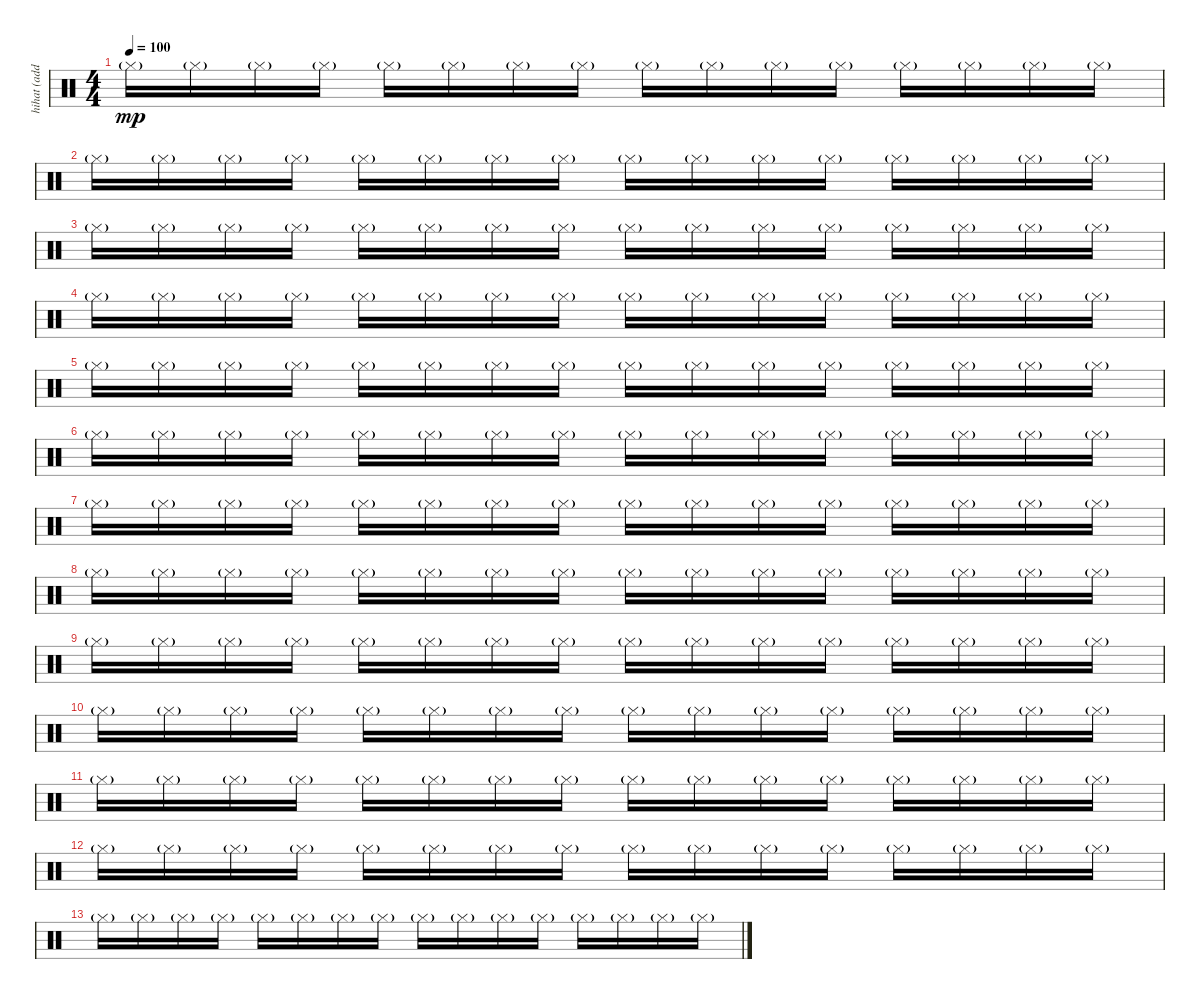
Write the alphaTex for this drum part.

\track ("hihat (additional)" "hihat (add") {instrument percussion}
\staff {score}
\articulation defaults
\ts (4 4)
\tempo 100
\clef neutral
\ks c "Hi-Hat (closed)"{g}.16{dy mp} "Hi-Hat (closed)"{g}.16 "Hi-Hat (closed)"{g}.16 "Hi-Hat (closed)"{g}.16 "Hi-Hat (closed)"{g}.16 "Hi-Hat (closed)"{g}.16 "Hi-Hat (closed)"{g}.16 "Hi-Hat (closed)"{g}.16 "Hi-Hat (closed)"{g}.16 "Hi-Hat (closed)"{g}.16 "Hi-Hat (closed)"{g}.16 "Hi-Hat (closed)"{g}.16 "Hi-Hat (closed)"{g}.16 "Hi-Hat (closed)"{g}.16 "Hi-Hat (closed)"{g}.16 "Hi-Hat (closed)"{g}.16
|
"Hi-Hat (closed)"{g}.16 "Hi-Hat (closed)"{g}.16 "Hi-Hat (closed)"{g}.16 "Hi-Hat (closed)"{g}.16 "Hi-Hat (closed)"{g}.16 "Hi-Hat (closed)"{g}.16 "Hi-Hat (closed)"{g}.16 "Hi-Hat (closed)"{g}.16 "Hi-Hat (closed)"{g}.16 "Hi-Hat (closed)"{g}.16 "Hi-Hat (closed)"{g}.16 "Hi-Hat (closed)"{g}.16 "Hi-Hat (closed)"{g}.16 "Hi-Hat (closed)"{g}.16 "Hi-Hat (closed)"{g}.16 "Hi-Hat (closed)"{g}.16 |
"Hi-Hat (closed)"{g}.16 "Hi-Hat (closed)"{g}.16 "Hi-Hat (closed)"{g}.16 "Hi-Hat (closed)"{g}.16 "Hi-Hat (closed)"{g}.16 "Hi-Hat (closed)"{g}.16 "Hi-Hat (closed)"{g}.16 "Hi-Hat (closed)"{g}.16 "Hi-Hat (closed)"{g}.16 "Hi-Hat (closed)"{g}.16 "Hi-Hat (closed)"{g}.16 "Hi-Hat (closed)"{g}.16 "Hi-Hat (closed)"{g}.16 "Hi-Hat (closed)"{g}.16 "Hi-Hat (closed)"{g}.16 "Hi-Hat (closed)"{g}.16 |
"Hi-Hat (closed)"{g}.16 "Hi-Hat (closed)"{g}.16 "Hi-Hat (closed)"{g}.16 "Hi-Hat (closed)"{g}.16 "Hi-Hat (closed)"{g}.16 "Hi-Hat (closed)"{g}.16 "Hi-Hat (closed)"{g}.16 "Hi-Hat (closed)"{g}.16 "Hi-Hat (closed)"{g}.16 "Hi-Hat (closed)"{g}.16 "Hi-Hat (closed)"{g}.16 "Hi-Hat (closed)"{g}.16 "Hi-Hat (closed)"{g}.16 "Hi-Hat (closed)"{g}.16 "Hi-Hat (closed)"{g}.16 "Hi-Hat (closed)"{g}.16 |
"Hi-Hat (closed)"{g}.16 "Hi-Hat (closed)"{g}.16 "Hi-Hat (closed)"{g}.16 "Hi-Hat (closed)"{g}.16 "Hi-Hat (closed)"{g}.16 "Hi-Hat (closed)"{g}.16 "Hi-Hat (closed)"{g}.16 "Hi-Hat (closed)"{g}.16 "Hi-Hat (closed)"{g}.16 "Hi-Hat (closed)"{g}.16 "Hi-Hat (closed)"{g}.16 "Hi-Hat (closed)"{g}.16 "Hi-Hat (closed)"{g}.16 "Hi-Hat (closed)"{g}.16 "Hi-Hat (closed)"{g}.16 "Hi-Hat (closed)"{g}.16 |
"Hi-Hat (closed)"{g}.16 "Hi-Hat (closed)"{g}.16 "Hi-Hat (closed)"{g}.16 "Hi-Hat (closed)"{g}.16 "Hi-Hat (closed)"{g}.16 "Hi-Hat (closed)"{g}.16 "Hi-Hat (closed)"{g}.16 "Hi-Hat (closed)"{g}.16 "Hi-Hat (closed)"{g}.16 "Hi-Hat (closed)"{g}.16 "Hi-Hat (closed)"{g}.16 "Hi-Hat (closed)"{g}.16 "Hi-Hat (closed)"{g}.16 "Hi-Hat (closed)"{g}.16 "Hi-Hat (closed)"{g}.16 "Hi-Hat (closed)"{g}.16 |
"Hi-Hat (closed)"{g}.16 "Hi-Hat (closed)"{g}.16 "Hi-Hat (closed)"{g}.16 "Hi-Hat (closed)"{g}.16 "Hi-Hat (closed)"{g}.16 "Hi-Hat (closed)"{g}.16 "Hi-Hat (closed)"{g}.16 "Hi-Hat (closed)"{g}.16 "Hi-Hat (closed)"{g}.16 "Hi-Hat (closed)"{g}.16 "Hi-Hat (closed)"{g}.16 "Hi-Hat (closed)"{g}.16 "Hi-Hat (closed)"{g}.16 "Hi-Hat (closed)"{g}.16 "Hi-Hat (closed)"{g}.16 "Hi-Hat (closed)"{g}.16 |
"Hi-Hat (closed)"{g}.16 "Hi-Hat (closed)"{g}.16 "Hi-Hat (closed)"{g}.16 "Hi-Hat (closed)"{g}.16 "Hi-Hat (closed)"{g}.16 "Hi-Hat (closed)"{g}.16 "Hi-Hat (closed)"{g}.16 "Hi-Hat (closed)"{g}.16 "Hi-Hat (closed)"{g}.16 "Hi-Hat (closed)"{g}.16 "Hi-Hat (closed)"{g}.16 "Hi-Hat (closed)"{g}.16 "Hi-Hat (closed)"{g}.16 "Hi-Hat (closed)"{g}.16 "Hi-Hat (closed)"{g}.16 "Hi-Hat (closed)"{g}.16 |
"Hi-Hat (closed)"{g}.16 "Hi-Hat (closed)"{g}.16 "Hi-Hat (closed)"{g}.16 "Hi-Hat (closed)"{g}.16 "Hi-Hat (closed)"{g}.16 "Hi-Hat (closed)"{g}.16 "Hi-Hat (closed)"{g}.16 "Hi-Hat (closed)"{g}.16 "Hi-Hat (closed)"{g}.16 "Hi-Hat (closed)"{g}.16 "Hi-Hat (closed)"{g}.16 "Hi-Hat (closed)"{g}.16 "Hi-Hat (closed)"{g}.16 "Hi-Hat (closed)"{g}.16 "Hi-Hat (closed)"{g}.16 "Hi-Hat (closed)"{g}.16 |
"Hi-Hat (closed)"{g}.16 "Hi-Hat (closed)"{g}.16 "Hi-Hat (closed)"{g}.16 "Hi-Hat (closed)"{g}.16 "Hi-Hat (closed)"{g}.16 "Hi-Hat (closed)"{g}.16 "Hi-Hat (closed)"{g}.16 "Hi-Hat (closed)"{g}.16 "Hi-Hat (closed)"{g}.16 "Hi-Hat (closed)"{g}.16 "Hi-Hat (closed)"{g}.16 "Hi-Hat (closed)"{g}.16 "Hi-Hat (closed)"{g}.16 "Hi-Hat (closed)"{g}.16 "Hi-Hat (closed)"{g}.16 "Hi-Hat (closed)"{g}.16 |
"Hi-Hat (closed)"{g}.16 "Hi-Hat (closed)"{g}.16 "Hi-Hat (closed)"{g}.16 "Hi-Hat (closed)"{g}.16 "Hi-Hat (closed)"{g}.16 "Hi-Hat (closed)"{g}.16 "Hi-Hat (closed)"{g}.16 "Hi-Hat (closed)"{g}.16 "Hi-Hat (closed)"{g}.16 "Hi-Hat (closed)"{g}.16 "Hi-Hat (closed)"{g}.16 "Hi-Hat (closed)"{g}.16 "Hi-Hat (closed)"{g}.16 "Hi-Hat (closed)"{g}.16 "Hi-Hat (closed)"{g}.16 "Hi-Hat (closed)"{g}.16 |
"Hi-Hat (closed)"{g}.16 "Hi-Hat (closed)"{g}.16 "Hi-Hat (closed)"{g}.16 "Hi-Hat (closed)"{g}.16 "Hi-Hat (closed)"{g}.16 "Hi-Hat (closed)"{g}.16 "Hi-Hat (closed)"{g}.16 "Hi-Hat (closed)"{g}.16 "Hi-Hat (closed)"{g}.16 "Hi-Hat (closed)"{g}.16 "Hi-Hat (closed)"{g}.16 "Hi-Hat (closed)"{g}.16 "Hi-Hat (closed)"{g}.16 "Hi-Hat (closed)"{g}.16 "Hi-Hat (closed)"{g}.16 "Hi-Hat (closed)"{g}.16 |
"Hi-Hat (closed)"{g}.16 "Hi-Hat (closed)"{g}.16 "Hi-Hat (closed)"{g}.16 "Hi-Hat (closed)"{g}.16 "Hi-Hat (closed)"{g}.16 "Hi-Hat (closed)"{g}.16 "Hi-Hat (closed)"{g}.16 "Hi-Hat (closed)"{g}.16 "Hi-Hat (closed)"{g}.16 "Hi-Hat (closed)"{g}.16 "Hi-Hat (closed)"{g}.16 "Hi-Hat (closed)"{g}.16 "Hi-Hat (closed)"{g}.16 "Hi-Hat (closed)"{g}.16 "Hi-Hat (closed)"{g}.16 "Hi-Hat (closed)"{g}.16
